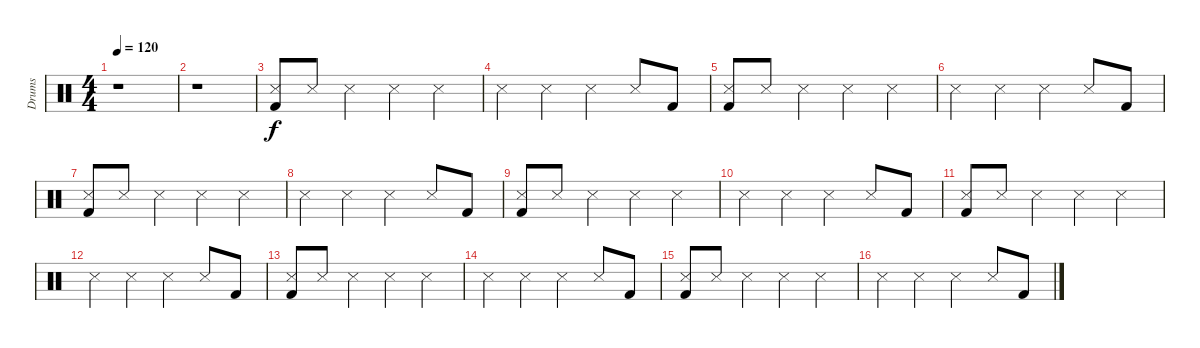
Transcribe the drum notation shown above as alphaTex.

\track ("Drums" "Drums") {instrument percussion}
\staff {score}
\articulation defaults
\ts (4 4)
\tempo 120
\clef neutral
\ks c
r.1{dy f} |
r.1 |
("Snare (side stick) 3" "Kick (hit) 2").8 "Snare (side stick) 3".8 "Snare (side stick) 3".4 "Snare (side stick) 3".4 "Snare (side stick) 3".4 |
"Snare (side stick) 3".4 "Snare (side stick) 3".4 "Snare (side stick) 3".4 "Snare (side stick) 3".8 "Kick (hit) 2".8 |
("Snare (side stick) 3" "Kick (hit) 2").8 "Snare (side stick) 3".8 "Snare (side stick) 3".4 "Snare (side stick) 3".4 "Snare (side stick) 3".4 |
"Snare (side stick) 3".4 "Snare (side stick) 3".4 "Snare (side stick) 3".4 "Snare (side stick) 3".8 "Kick (hit) 2".8 |
("Snare (side stick) 3" "Kick (hit) 2").8 "Snare (side stick) 3".8 "Snare (side stick) 3".4 "Snare (side stick) 3".4 "Snare (side stick) 3".4 |
"Snare (side stick) 3".4 "Snare (side stick) 3".4 "Snare (side stick) 3".4 "Snare (side stick) 3".8 "Kick (hit) 2".8 |
("Snare (side stick) 3" "Kick (hit) 2").8 "Snare (side stick) 3".8 "Snare (side stick) 3".4 "Snare (side stick) 3".4 "Snare (side stick) 3".4 |
"Snare (side stick) 3".4 "Snare (side stick) 3".4 "Snare (side stick) 3".4 "Snare (side stick) 3".8 "Kick (hit) 2".8 |
("Snare (side stick) 3" "Kick (hit) 2").8 "Snare (side stick) 3".8 "Snare (side stick) 3".4 "Snare (side stick) 3".4 "Snare (side stick) 3".4 |
"Snare (side stick) 3".4 "Snare (side stick) 3".4 "Snare (side stick) 3".4 "Snare (side stick) 3".8 "Kick (hit) 2".8 |
("Snare (side stick) 3" "Kick (hit) 2").8 "Snare (side stick) 3".8 "Snare (side stick) 3".4 "Snare (side stick) 3".4 "Snare (side stick) 3".4 |
"Snare (side stick) 3".4 "Snare (side stick) 3".4 "Snare (side stick) 3".4 "Snare (side stick) 3".8 "Kick (hit) 2".8 |
("Snare (side stick) 3" "Kick (hit) 2").8 "Snare (side stick) 3".8 "Snare (side stick) 3".4 "Snare (side stick) 3".4 "Snare (side stick) 3".4 |
"Snare (side stick) 3".4 "Snare (side stick) 3".4 "Snare (side stick) 3".4 "Snare (side stick) 3".8 "Kick (hit) 2".8
